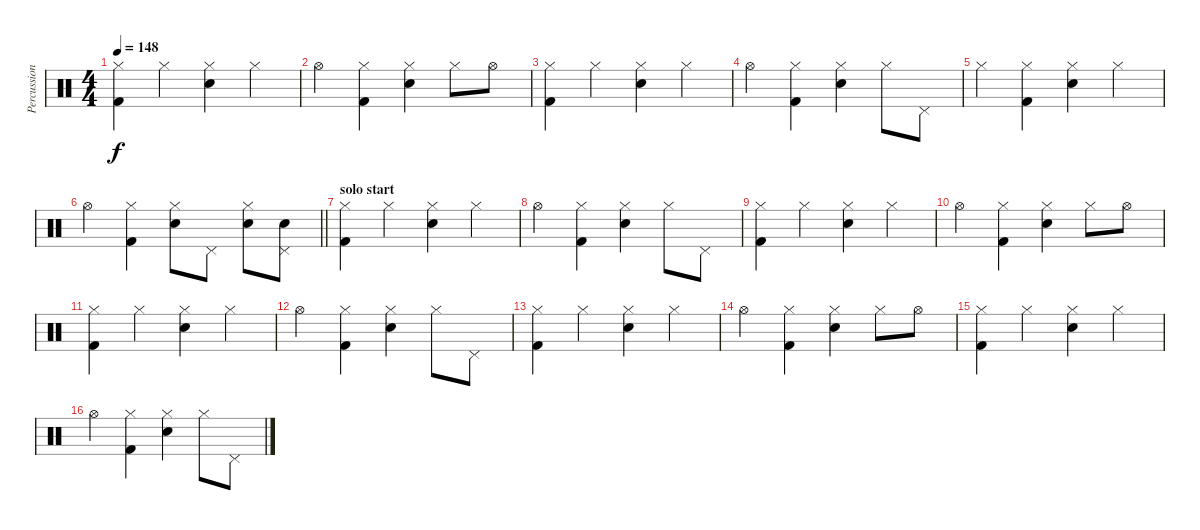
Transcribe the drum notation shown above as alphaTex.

\track ("Percussions" "Percussion") {instrument percussion}
\staff {score}
\articulation defaults
\ts (4 4)
\tempo 148
\clef neutral
\ks c
("Hi-Hat (closed)" "Kick (hit) 2").4{dy f} "Hi-Hat (closed)".4 ("Hi-Hat (closed)" "Snare (hit) 2").4 "Hi-Hat (closed)".4 |
"Hi-Hat (open)".4 ("Hi-Hat (closed)" "Kick (hit) 2").4 ("Hi-Hat (closed)" "Snare (hit) 2").4 "Hi-Hat (closed)".8 "Hi-Hat (open)".8 |
("Hi-Hat (closed)" "Kick (hit) 2").4 "Hi-Hat (closed)".4 ("Hi-Hat (closed)" "Snare (hit) 2").4 "Hi-Hat (closed)".4 |
"Hi-Hat (open)".4 ("Hi-Hat (closed)" "Kick (hit) 2").4 ("Hi-Hat (closed)" "Snare (hit) 2").4 "Hi-Hat (closed)".8 "Pedal Hi-Hat (hit)".8 |
"Hi-Hat (closed)".4 ("Hi-Hat (closed)" "Kick (hit) 2").4 ("Hi-Hat (closed)" "Snare (hit) 2").4 "Hi-Hat (closed)".4 |
\barLineRight lightlight "Hi-Hat (open)".4
("Hi-Hat (closed)" "Kick (hit) 2").4 ("Hi-Hat (closed)" "Snare (hit) 2").8 "Pedal Hi-Hat (hit)".8 ("Hi-Hat (closed)" "Snare (hit) 2").8 ("Pedal Hi-Hat (hit)" "Snare (hit) 2").8 |
\section ("" "solo start")
("Hi-Hat (closed)" "Kick (hit) 2").4 "Hi-Hat (closed)".4 ("Hi-Hat (closed)" "Snare (hit) 2").4 "Hi-Hat (closed)".4 |
"Hi-Hat (open)".4 ("Hi-Hat (closed)" "Kick (hit) 2").4 ("Hi-Hat (closed)" "Snare (hit) 2").4 "Hi-Hat (closed)".8 "Pedal Hi-Hat (hit)".8 |
("Hi-Hat (closed)" "Kick (hit) 2").4 "Hi-Hat (closed)".4 ("Hi-Hat (closed)" "Snare (hit) 2").4 "Hi-Hat (closed)".4 |
"Hi-Hat (open)".4 ("Hi-Hat (closed)" "Kick (hit) 2").4 ("Hi-Hat (closed)" "Snare (hit) 2").4 "Hi-Hat (closed)".8 "Hi-Hat (open)".8 |
("Hi-Hat (closed)" "Kick (hit) 2").4 "Hi-Hat (closed)".4 ("Hi-Hat (closed)" "Snare (hit) 2").4 "Hi-Hat (closed)".4 |
"Hi-Hat (open)".4 ("Hi-Hat (closed)" "Kick (hit) 2").4 ("Hi-Hat (closed)" "Snare (hit) 2").4 "Hi-Hat (closed)".8 "Pedal Hi-Hat (hit)".8 |
("Hi-Hat (closed)" "Kick (hit) 2").4 "Hi-Hat (closed)".4 ("Hi-Hat (closed)" "Snare (hit) 2").4 "Hi-Hat (closed)".4 |
"Hi-Hat (open)".4 ("Hi-Hat (closed)" "Kick (hit) 2").4 ("Hi-Hat (closed)" "Snare (hit) 2").4 "Hi-Hat (closed)".8 "Hi-Hat (open)".8 |
("Hi-Hat (closed)" "Kick (hit) 2").4 "Hi-Hat (closed)".4 ("Hi-Hat (closed)" "Snare (hit) 2").4 "Hi-Hat (closed)".4 |
"Hi-Hat (open)".4 ("Hi-Hat (closed)" "Kick (hit) 2").4 ("Hi-Hat (closed)" "Snare (hit) 2").4 "Hi-Hat (closed)".8 "Pedal Hi-Hat (hit)".8
